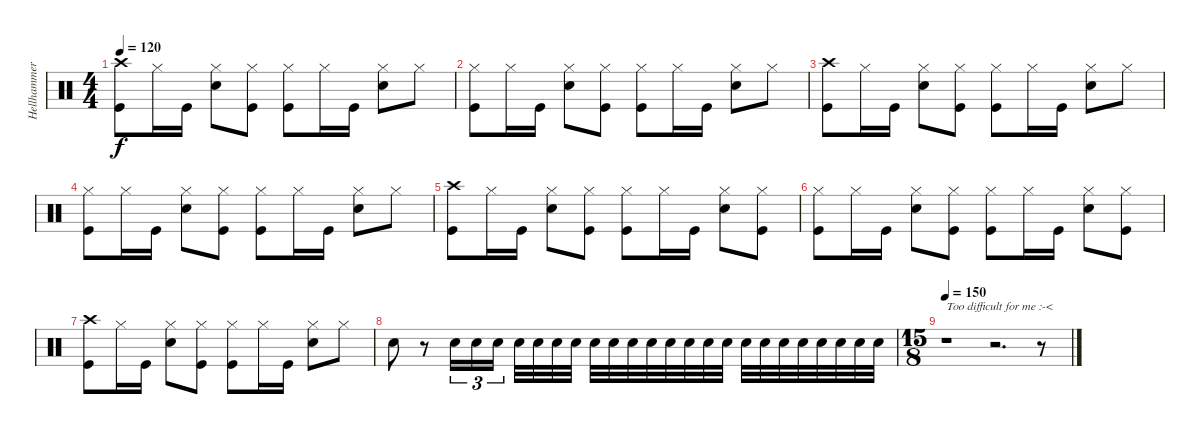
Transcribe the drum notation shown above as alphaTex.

\track ("Hellhammer" "Hellhammer") {instrument percussion}
\staff {score}
\articulation defaults
\ts (4 4)
\tempo 120
\clef neutral
\ks c
("Crash high (hit)" "Kick (hit)").8{dy f} "Hi-Hat (closed)".16 "Kick (hit)".16 ("Hi-Hat (closed)" "Electric Snare (hit)").8 ("Hi-Hat (closed)" "Kick (hit)").8 ("Hi-Hat (closed)" "Kick (hit)").8 "Hi-Hat (closed)".16 "Kick (hit)".16 ("Hi-Hat (closed)" "Electric Snare (hit)").8 "Hi-Hat (closed)".8 |
("Hi-Hat (closed)" "Kick (hit)").8 "Hi-Hat (closed)".16 "Kick (hit)".16 ("Hi-Hat (closed)" "Electric Snare (hit)").8 ("Hi-Hat (closed)" "Kick (hit)").8 ("Hi-Hat (closed)" "Kick (hit)").8 "Hi-Hat (closed)".16 "Kick (hit)".16 ("Hi-Hat (closed)" "Electric Snare (hit)").8 "Hi-Hat (closed)".8 |
("Crash high (hit)" "Kick (hit)").8 "Hi-Hat (closed)".16 "Kick (hit)".16 ("Hi-Hat (closed)" "Electric Snare (hit)").8 ("Hi-Hat (closed)" "Kick (hit)").8 ("Hi-Hat (closed)" "Kick (hit)").8 "Hi-Hat (closed)".16 "Kick (hit)".16 ("Hi-Hat (closed)" "Electric Snare (hit)").8 "Hi-Hat (closed)".8 |
("Hi-Hat (closed)" "Kick (hit)").8 "Hi-Hat (closed)".16 "Kick (hit)".16 ("Hi-Hat (closed)" "Electric Snare (hit)").8 ("Hi-Hat (closed)" "Kick (hit)").8 ("Hi-Hat (closed)" "Kick (hit)").8 "Hi-Hat (closed)".16 "Kick (hit)".16 ("Hi-Hat (closed)" "Electric Snare (hit)").8 "Hi-Hat (closed)".8 |
("Crash high (hit)" "Kick (hit)").8 "Hi-Hat (closed)".16 "Kick (hit)".16 ("Hi-Hat (closed)" "Electric Snare (hit)").8 ("Hi-Hat (closed)" "Kick (hit)").8 ("Hi-Hat (closed)" "Kick (hit)").8 "Hi-Hat (closed)".16 "Kick (hit)".16 ("Hi-Hat (closed)" "Electric Snare (hit)").8 ("Hi-Hat (closed)" "Kick (hit)").8 |
("Hi-Hat (closed)" "Kick (hit)").8 "Hi-Hat (closed)".16 "Kick (hit)".16 ("Hi-Hat (closed)" "Electric Snare (hit)").8 ("Hi-Hat (closed)" "Kick (hit)").8 ("Hi-Hat (closed)" "Kick (hit)").8 "Hi-Hat (closed)".16 "Kick (hit)".16 ("Hi-Hat (closed)" "Electric Snare (hit)").8 ("Hi-Hat (closed)" "Kick (hit)").8 |
("Crash high (hit)" "Kick (hit)").8 "Hi-Hat (closed)".16 "Kick (hit)".16 ("Hi-Hat (closed)" "Electric Snare (hit)").8 ("Hi-Hat (closed)" "Kick (hit)").8 ("Hi-Hat (closed)" "Kick (hit)").8 "Hi-Hat (closed)".16 "Kick (hit)".16 ("Hi-Hat (closed)" "Electric Snare (hit)").8 "Hi-Hat (closed)".8 |
"Electric Snare (hit)".8 r.8 "Electric Snare (hit)".16{tu (3 2)} "Electric Snare (hit)".16{tu (3 2)} "Electric Snare (hit)".16{tu (3 2)} "Electric Snare (hit)".32 "Electric Snare (hit)".32 "Electric Snare (hit)".32 "Electric Snare (hit)".32 "Electric Snare (hit)".32 "Electric Snare (hit)".32 "Electric Snare (hit)".32 "Electric Snare (hit)".32 "Electric Snare (hit)".32 "Electric Snare (hit)".32 "Electric Snare (hit)".32 "Electric Snare (hit)".32 "Electric Snare (hit)".32 "Electric Snare (hit)".32 "Electric Snare (hit)".32 "Electric Snare (hit)".32 "Electric Snare (hit)".32 "Electric Snare (hit)".32 "Electric Snare (hit)".32 "Electric Snare (hit)".32 |
\ts (15 8)
\tempo 150
r.1{txt "Too difficult for me :-<"} r.2{d} r.8
